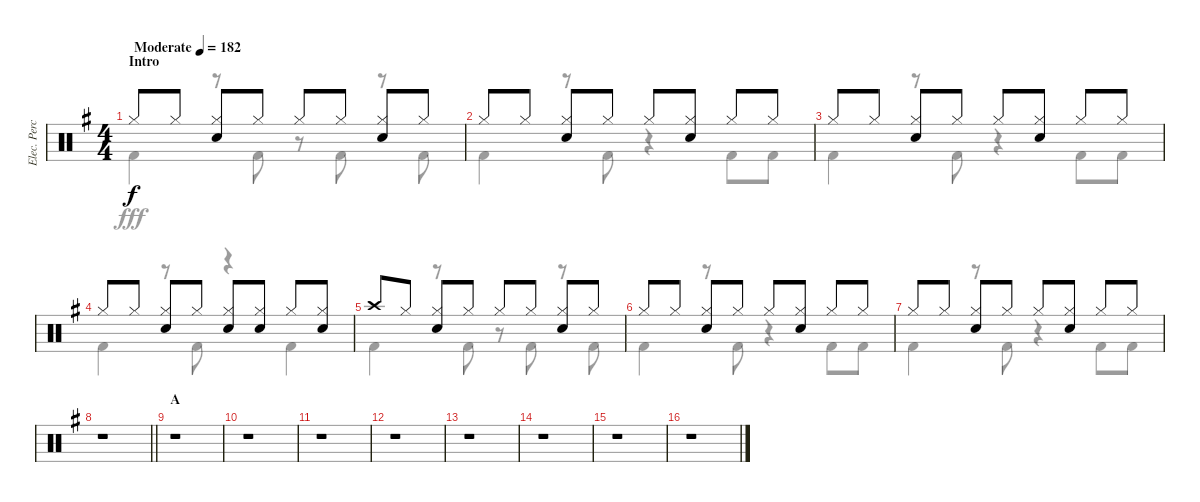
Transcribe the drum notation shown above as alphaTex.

\track ("Elec. Percussion" "Elec. Perc") {instrument percussion}
\staff {score}
\articulation defaults
\voice
\ts (4 4)
\section ("" "Intro")
\tempo (182 "Moderate")
\clef neutral
\ks g "Hi-Hat (closed)".8{dy f} "Hi-Hat (closed)".8
("Hi-Hat (closed)" "Snare (hit) 2").8 "Hi-Hat (closed)".8 "Hi-Hat (closed)".8 "Hi-Hat (closed)".8 ("Hi-Hat (closed)" "Snare (hit) 2").8 "Hi-Hat (closed)".8 |
"Hi-Hat (closed)".8 "Hi-Hat (closed)".8 ("Hi-Hat (closed)" "Snare (hit) 2").8 "Hi-Hat (closed)".8 "Hi-Hat (closed)".8 ("Hi-Hat (closed)" "Snare (hit) 2").8 "Hi-Hat (closed)".8 "Hi-Hat (closed)".8 |
"Hi-Hat (closed)".8 "Hi-Hat (closed)".8 ("Hi-Hat (closed)" "Snare (hit) 2").8 "Hi-Hat (closed)".8 "Hi-Hat (closed)".8 ("Hi-Hat (closed)" "Snare (hit) 2").8 "Hi-Hat (closed)".8 "Hi-Hat (closed)".8 |
"Hi-Hat (closed)".8 "Hi-Hat (closed)".8 ("Hi-Hat (closed)" "Snare (hit) 2").8 "Hi-Hat (closed)".8 ("Hi-Hat (closed)" "Snare (hit) 2").8 ("Hi-Hat (closed)" "Snare (hit) 2").8 "Hi-Hat (closed)".8 ("Hi-Hat (closed)" "Snare (hit) 2").8 |
"Crash high (hit)".8 "Hi-Hat (closed)".8 ("Hi-Hat (closed)" "Snare (hit) 2").8 "Hi-Hat (closed)".8 "Hi-Hat (closed)".8 "Hi-Hat (closed)".8 ("Hi-Hat (closed)" "Snare (hit) 2").8 "Hi-Hat (closed)".8 |
"Hi-Hat (closed)".8 "Hi-Hat (closed)".8 ("Hi-Hat (closed)" "Snare (hit) 2").8 "Hi-Hat (closed)".8 "Hi-Hat (closed)".8 ("Hi-Hat (closed)" "Snare (hit) 2").8 "Hi-Hat (closed)".8 "Hi-Hat (closed)".8 |
"Hi-Hat (closed)".8 "Hi-Hat (closed)".8 ("Hi-Hat (closed)" "Snare (hit) 2").8 "Hi-Hat (closed)".8 "Hi-Hat (closed)".8 ("Hi-Hat (closed)" "Snare (hit) 2").8 "Hi-Hat (closed)".8 "Hi-Hat (closed)".8 |
\barLineRight lightlight
r.1 |
\section ("" "A")
r.1 |
r.1 |
r.1 |
r.1 |
r.1 |
r.1 |
r.1 |
r.1
\voice
\clef neutral
\ottava regular
\simile none
\ks g "Kick (hit) 2".4{dy fff}
r.8 "Kick (hit) 2".8 r.8 "Kick (hit) 2".8 r.8 "Kick (hit) 2".8 |
"Kick (hit) 2".4 r.8 "Kick (hit) 2".8 r.4 "Kick (hit) 2".8 "Kick (hit) 2".8 |
"Kick (hit) 2".4 r.8 "Kick (hit) 2".8 r.4 "Kick (hit) 2".8 "Kick (hit) 2".8 |
"Kick (hit) 2".4 r.8 "Kick (hit) 2".8 r.4 "Kick (hit) 2".4 |
"Kick (hit) 2".4 r.8 "Kick (hit) 2".8 r.8 "Kick (hit) 2".8 r.8 "Kick (hit) 2".8 |
"Kick (hit) 2".4 r.8 "Kick (hit) 2".8 r.4 "Kick (hit) 2".8 "Kick (hit) 2".8 |
"Kick (hit) 2".4 r.8 "Kick (hit) 2".8 r.4 "Kick (hit) 2".8 "Kick (hit) 2".8 |
\barLineRight lightlight
|
|
|
|
|
|
|
|
